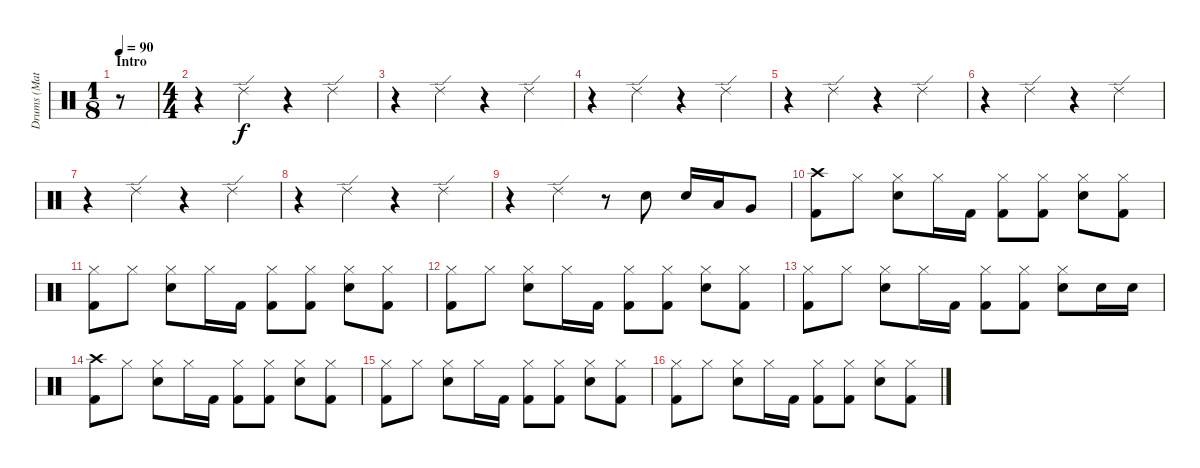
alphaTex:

\track ("Drums (Matt)" "Drums (Mat") {instrument percussion}
\staff {score}
\articulation defaults
\ts (1 8)
\section ("" "Intro")
\tempo 90
\clef neutral
\ks c
r.8{dy f} |
\ts (4 4)
r.4 "Ride (edge) 2".4 r.4 "Ride (edge) 2".4 |
r.4 "Ride (edge) 2".4 r.4 "Ride (edge) 2".4 |
r.4 "Ride (edge) 2".4 r.4 "Ride (edge) 2".4 |
r.4 "Ride (edge) 2".4 r.4 "Ride (edge) 2".4 |
r.4 "Ride (edge) 2".4 r.4 "Ride (edge) 2".4 |
r.4 "Ride (edge) 2".4 r.4 "Ride (edge) 2".4 |
r.4 "Ride (edge) 2".4 r.4 "Ride (edge) 2".4 |
r.4 "Ride (edge) 2".4 r.8 "Snare (hit) 2".8 "Snare (hit) 2".16 "Low Tom (hit)".16 "Very Low Tom (hit)".8 |
("Crash high (hit)" "Kick (hit) 2").8 "Hi-Hat (closed)".8 ("Hi-Hat (closed)" "Snare (hit) 2").8 "Hi-Hat (closed)".16 "Kick (hit) 2".16 ("Hi-Hat (closed)" "Kick (hit) 2").8 ("Hi-Hat (closed)" "Kick (hit) 2").8 ("Hi-Hat (closed)" "Snare (hit) 2").8 ("Hi-Hat (closed)" "Kick (hit) 2").8 |
("Hi-Hat (closed)" "Kick (hit) 2").8 "Hi-Hat (closed)".8 ("Hi-Hat (closed)" "Snare (hit) 2").8 "Hi-Hat (closed)".16 "Kick (hit) 2".16 ("Hi-Hat (closed)" "Kick (hit) 2").8 ("Hi-Hat (closed)" "Kick (hit) 2").8 ("Hi-Hat (closed)" "Snare (hit) 2").8 ("Hi-Hat (closed)" "Kick (hit) 2").8 |
("Hi-Hat (closed)" "Kick (hit) 2").8 "Hi-Hat (closed)".8 ("Hi-Hat (closed)" "Snare (hit) 2").8 "Hi-Hat (closed)".16 "Kick (hit) 2".16 ("Hi-Hat (closed)" "Kick (hit) 2").8 ("Hi-Hat (closed)" "Kick (hit) 2").8 ("Hi-Hat (closed)" "Snare (hit) 2").8 ("Hi-Hat (closed)" "Kick (hit) 2").8 |
("Hi-Hat (closed)" "Kick (hit) 2").8 "Hi-Hat (closed)".8 ("Hi-Hat (closed)" "Snare (hit) 2").8 "Hi-Hat (closed)".16 "Kick (hit) 2".16 ("Hi-Hat (closed)" "Kick (hit) 2").8 ("Hi-Hat (closed)" "Kick (hit) 2").8 ("Hi-Hat (closed)" "Snare (hit) 2").8 "Snare (hit) 2".16 "Snare (hit) 2".16 |
("Crash high (hit)" "Kick (hit) 2").8 "Hi-Hat (closed)".8 ("Hi-Hat (closed)" "Snare (hit) 2").8 "Hi-Hat (closed)".16 "Kick (hit) 2".16 ("Hi-Hat (closed)" "Kick (hit) 2").8 ("Hi-Hat (closed)" "Kick (hit) 2").8 ("Hi-Hat (closed)" "Snare (hit) 2").8 ("Hi-Hat (closed)" "Kick (hit) 2").8 |
("Hi-Hat (closed)" "Kick (hit) 2").8 "Hi-Hat (closed)".8 ("Hi-Hat (closed)" "Snare (hit) 2").8 "Hi-Hat (closed)".16 "Kick (hit) 2".16 ("Hi-Hat (closed)" "Kick (hit) 2").8 ("Hi-Hat (closed)" "Kick (hit) 2").8 ("Hi-Hat (closed)" "Snare (hit) 2").8 ("Hi-Hat (closed)" "Kick (hit) 2").8 |
("Hi-Hat (closed)" "Kick (hit) 2").8 "Hi-Hat (closed)".8 ("Hi-Hat (closed)" "Snare (hit) 2").8 "Hi-Hat (closed)".16 "Kick (hit) 2".16 ("Hi-Hat (closed)" "Kick (hit) 2").8 ("Hi-Hat (closed)" "Kick (hit) 2").8 ("Hi-Hat (closed)" "Snare (hit) 2").8 ("Hi-Hat (closed)" "Kick (hit) 2").8
